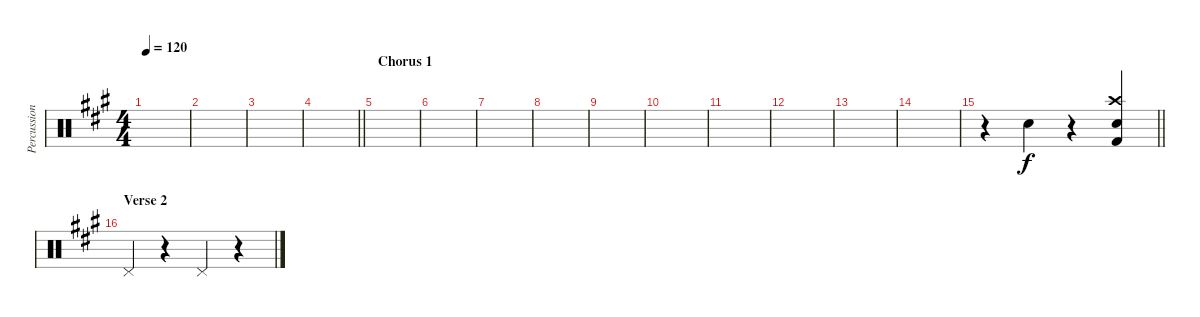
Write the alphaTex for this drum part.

\track ("Percussion" "Percussion") {instrument percussion}
\staff {score}
\articulation defaults
\ts (4 4)
\tempo 120
\clef neutral
\ks a
|
|
|
\barLineRight lightlight
|
\section ("" "Chorus 1")
|
|
|
|
|
|
|
|
|
|
\barLineRight lightlight
r.4 "Snare (hit) 2".4 r.4 ("Crash high (hit)" "Snare (hit) 2" "Kick (hit) 2").4 |
\section ("" "Verse 2")
"Pedal Hi-Hat (hit)".4 r.4 "Pedal Hi-Hat (hit)".4 r.4
